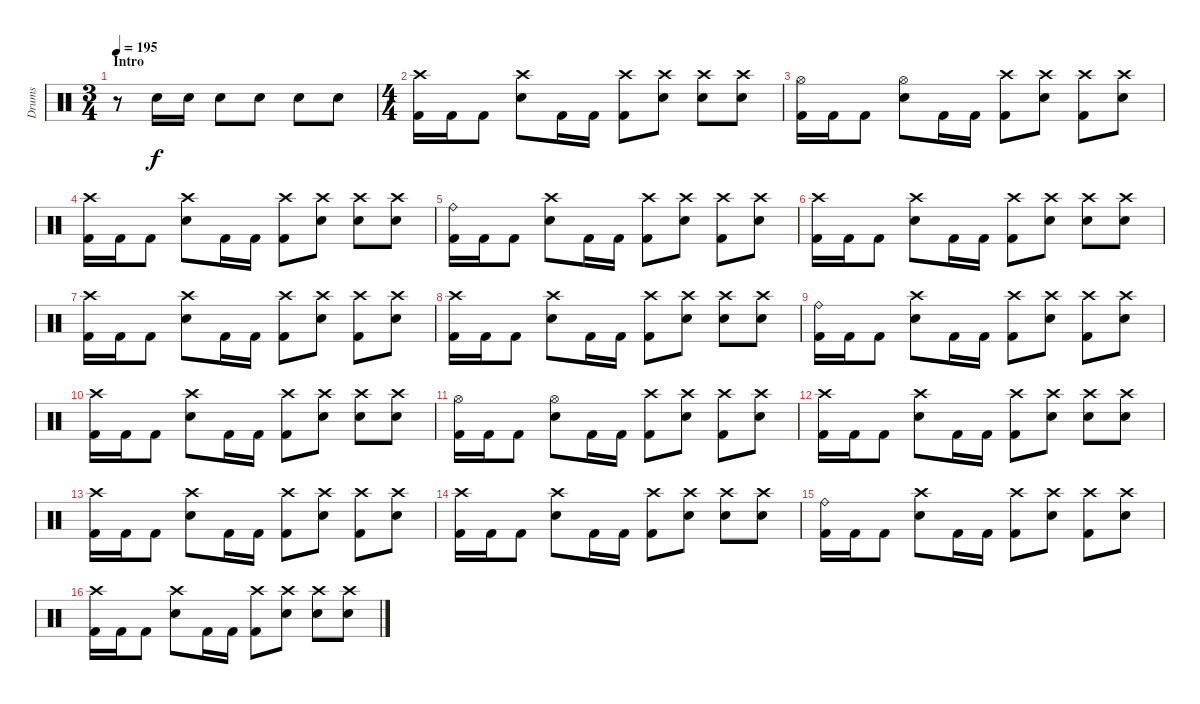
\track ("Drums" "Drums") {instrument percussion}
\staff {score}
\articulation defaults
\ts (3 4)
\section ("" "Intro")
\tempo 195
\clef neutral
\ks c
r.8{dy f} "Electric Snare (hit)".16 "Electric Snare (hit)".16 "Electric Snare (hit)".8 "Electric Snare (hit)".8 "Electric Snare (hit)".8 "Electric Snare (hit)".8 |
\ts (4 4)
("Crash high (hit)" "Kick (hit) 2").16 "Kick (hit) 2".16 "Kick (hit) 2".8 ("Crash high (hit)" "Electric Snare (hit)").8 "Kick (hit) 2".16 "Kick (hit) 2".16 ("Crash high (hit)" "Kick (hit) 2").8 ("Crash high (hit)" "Electric Snare (hit)").8 ("Crash high (hit)" "Electric Snare (hit)").8 ("Crash high (hit)" "Electric Snare (hit)").8 |
("Hi-Hat (open)" "Kick (hit) 2").16 "Kick (hit) 2".16 "Kick (hit) 2".8 ("Hi-Hat (open)" "Electric Snare (hit)").8 "Kick (hit) 2".16 "Kick (hit) 2".16 ("Crash high (hit)" "Kick (hit) 2").8 ("Crash high (hit)" "Electric Snare (hit)").8 ("Crash high (hit)" "Kick (hit) 2").8 ("Crash high (hit)" "Electric Snare (hit)").8 |
("Crash high (hit)" "Kick (hit) 2").16 "Kick (hit) 2".16 "Kick (hit) 2".8 ("Crash high (hit)" "Electric Snare (hit)").8 "Kick (hit) 2".16 "Kick (hit) 2".16 ("Crash high (hit)" "Kick (hit) 2").8 ("Crash high (hit)" "Electric Snare (hit)").8 ("Crash high (hit)" "Electric Snare (hit)").8 ("Crash high (hit)" "Electric Snare (hit)").8 |
("Ride (bell)" "Kick (hit) 2").16 "Kick (hit) 2".16 "Kick (hit) 2".8 ("Crash high (hit)" "Electric Snare (hit)").8 "Kick (hit) 2".16 "Kick (hit) 2".16 ("Crash high (hit)" "Kick (hit) 2").8 ("Crash high (hit)" "Electric Snare (hit)").8 ("Crash high (hit)" "Kick (hit) 2").8 ("Crash high (hit)" "Electric Snare (hit)").8 |
("Crash high (hit)" "Kick (hit) 2").16 "Kick (hit) 2".16 "Kick (hit) 2".8 ("Crash high (hit)" "Electric Snare (hit)").8 "Kick (hit) 2".16 "Kick (hit) 2".16 ("Crash high (hit)" "Kick (hit) 2").8 ("Crash high (hit)" "Electric Snare (hit)").8 ("Crash high (hit)" "Electric Snare (hit)").8 ("Crash high (hit)" "Electric Snare (hit)").8 |
("Crash high (hit)" "Kick (hit) 2").16 "Kick (hit) 2".16 "Kick (hit) 2".8 ("Crash high (hit)" "Electric Snare (hit)").8 "Kick (hit) 2".16 "Kick (hit) 2".16 ("Crash high (hit)" "Kick (hit) 2").8 ("Crash high (hit)" "Electric Snare (hit)").8 ("Crash high (hit)" "Kick (hit) 2").8 ("Crash high (hit)" "Electric Snare (hit)").8 |
("Crash high (hit)" "Kick (hit) 2").16 "Kick (hit) 2".16 "Kick (hit) 2".8 ("Crash high (hit)" "Electric Snare (hit)").8 "Kick (hit) 2".16 "Kick (hit) 2".16 ("Crash high (hit)" "Kick (hit) 2").8 ("Crash high (hit)" "Electric Snare (hit)").8 ("Crash high (hit)" "Electric Snare (hit)").8 ("Crash high (hit)" "Electric Snare (hit)").8 |
("Ride (bell)" "Kick (hit) 2").16 "Kick (hit) 2".16 "Kick (hit) 2".8 ("Crash high (hit)" "Electric Snare (hit)").8 "Kick (hit) 2".16 "Kick (hit) 2".16 ("Crash high (hit)" "Kick (hit) 2").8 ("Crash high (hit)" "Electric Snare (hit)").8 ("Crash high (hit)" "Kick (hit) 2").8 ("Crash high (hit)" "Electric Snare (hit)").8 |
("Crash high (hit)" "Kick (hit) 2").16 "Kick (hit) 2".16 "Kick (hit) 2".8 ("Crash high (hit)" "Electric Snare (hit)").8 "Kick (hit) 2".16 "Kick (hit) 2".16 ("Crash high (hit)" "Kick (hit) 2").8 ("Crash high (hit)" "Electric Snare (hit)").8 ("Crash high (hit)" "Electric Snare (hit)").8 ("Crash high (hit)" "Electric Snare (hit)").8 |
("Hi-Hat (open)" "Kick (hit) 2").16 "Kick (hit) 2".16 "Kick (hit) 2".8 ("Hi-Hat (open)" "Electric Snare (hit)").8 "Kick (hit) 2".16 "Kick (hit) 2".16 ("Crash high (hit)" "Kick (hit) 2").8 ("Crash high (hit)" "Electric Snare (hit)").8 ("Crash high (hit)" "Kick (hit) 2").8 ("Crash high (hit)" "Electric Snare (hit)").8 |
("Crash high (hit)" "Kick (hit) 2").16 "Kick (hit) 2".16 "Kick (hit) 2".8 ("Crash high (hit)" "Electric Snare (hit)").8 "Kick (hit) 2".16 "Kick (hit) 2".16 ("Crash high (hit)" "Kick (hit) 2").8 ("Crash high (hit)" "Electric Snare (hit)").8 ("Crash high (hit)" "Electric Snare (hit)").8 ("Crash high (hit)" "Electric Snare (hit)").8 |
("Crash high (hit)" "Kick (hit) 2").16 "Kick (hit) 2".16 "Kick (hit) 2".8 ("Crash high (hit)" "Electric Snare (hit)").8 "Kick (hit) 2".16 "Kick (hit) 2".16 ("Crash high (hit)" "Kick (hit) 2").8 ("Crash high (hit)" "Electric Snare (hit)").8 ("Crash high (hit)" "Kick (hit) 2").8 ("Crash high (hit)" "Electric Snare (hit)").8 |
("Crash high (hit)" "Kick (hit) 2").16 "Kick (hit) 2".16 "Kick (hit) 2".8 ("Crash high (hit)" "Electric Snare (hit)").8 "Kick (hit) 2".16 "Kick (hit) 2".16 ("Crash high (hit)" "Kick (hit) 2").8 ("Crash high (hit)" "Electric Snare (hit)").8 ("Crash high (hit)" "Electric Snare (hit)").8 ("Crash high (hit)" "Electric Snare (hit)").8 |
("Ride (bell)" "Kick (hit) 2").16 "Kick (hit) 2".16 "Kick (hit) 2".8 ("Crash high (hit)" "Electric Snare (hit)").8 "Kick (hit) 2".16 "Kick (hit) 2".16 ("Crash high (hit)" "Kick (hit) 2").8 ("Crash high (hit)" "Electric Snare (hit)").8 ("Crash high (hit)" "Kick (hit) 2").8 ("Crash high (hit)" "Electric Snare (hit)").8 |
("Crash high (hit)" "Kick (hit) 2").16 "Kick (hit) 2".16 "Kick (hit) 2".8 ("Crash high (hit)" "Electric Snare (hit)").8 "Kick (hit) 2".16 "Kick (hit) 2".16 ("Crash high (hit)" "Kick (hit) 2").8 ("Crash high (hit)" "Electric Snare (hit)").8 ("Crash high (hit)" "Electric Snare (hit)").8 ("Crash high (hit)" "Electric Snare (hit)").8
